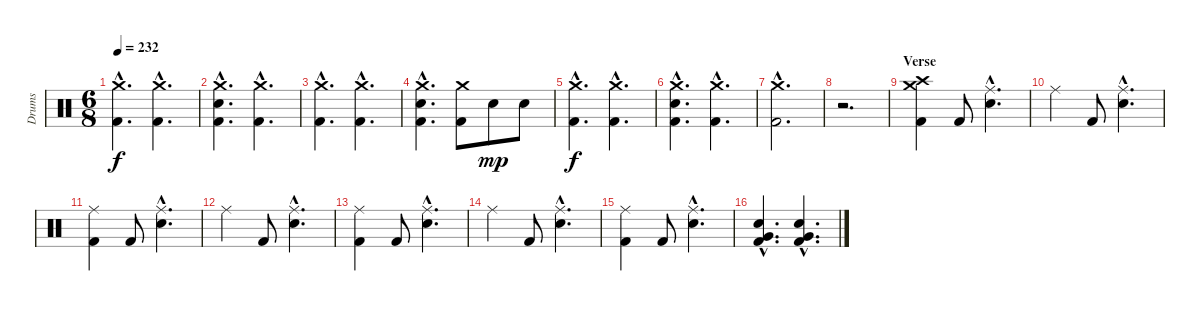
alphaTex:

\track ("Drums" "Drums") {instrument percussion}
\staff {score}
\articulation defaults
\ts (6 8)
\tempo 232
\clef neutral
\ks c
("Crash medium (hit)"{hac} "Kick (hit) 2"{hac}).4{d dy f} ("Crash medium (hit)"{hac} "Kick (hit) 2"{hac}).4{d} |
("Crash medium (hit)"{hac} "Snare (hit) 2"{hac} "Kick (hit) 2"{hac}).4{d} ("Crash medium (hit)"{hac} "Kick (hit) 2"{hac}).4{d} |
("Crash medium (hit)"{hac} "Kick (hit) 2"{hac}).4{d} ("Crash medium (hit)"{hac} "Kick (hit) 2"{hac}).4{d} |
("Crash medium (hit)"{hac} "Snare (hit) 2"{hac} "Kick (hit) 2"{hac}).4{d} ("Crash medium (hit)" "Kick (hit) 2").8 "Snare (hit) 2".8{dy mp} "Snare (hit) 2".8 |
("Crash medium (hit)"{hac} "Kick (hit) 2"{hac}).4{d dy f} ("Crash medium (hit)"{hac} "Kick (hit) 2"{hac}).4{d} |
("Crash medium (hit)"{hac} "Snare (hit) 2"{hac} "Kick (hit) 2"{hac}).4{d} ("Crash medium (hit)"{hac} "Kick (hit) 2"{hac}).4{d} |
("Crash medium (hit)"{hac} "Kick (hit) 2"{hac}).2{d} |
r.2{d} |
\section ("" "Verse")
("Crash medium (hit)" "Crash high (hit)" "Kick (hit) 2").4 "Kick (hit) 2".8 ("Ride (middle)"{hac} "Snare (hit) 2"{hac}).4{d} |
"Ride (middle)".4 "Kick (hit) 2".8 ("Ride (middle)"{hac} "Snare (hit) 2"{hac}).4{d} |
("Ride (middle)" "Kick (hit) 2").4 "Kick (hit) 2".8 ("Ride (middle)"{hac} "Snare (hit) 2"{hac}).4{d} |
"Ride (middle)".4 "Kick (hit) 2".8 ("Ride (middle)"{hac} "Snare (hit) 2"{hac}).4{d} |
("Ride (middle)" "Kick (hit) 2").4 "Kick (hit) 2".8 ("Ride (middle)"{hac} "Snare (hit) 2"{hac}).4{d} |
"Ride (middle)".4 "Kick (hit) 2".8 ("Ride (middle)"{hac} "Snare (hit) 2"{hac}).4{d} |
("Ride (middle)" "Kick (hit) 2").4 "Kick (hit) 2".8 ("Ride (middle)"{hac} "Snare (hit) 2"{hac}).4{d} |
("Very Low Tom (hit)"{hac} "Snare (hit) 2"{hac} "Kick (hit) 2"{hac}).4{d} ("Very Low Tom (hit)"{hac} "Snare (hit) 2"{hac} "Kick (hit) 2"{hac}).4{d}
